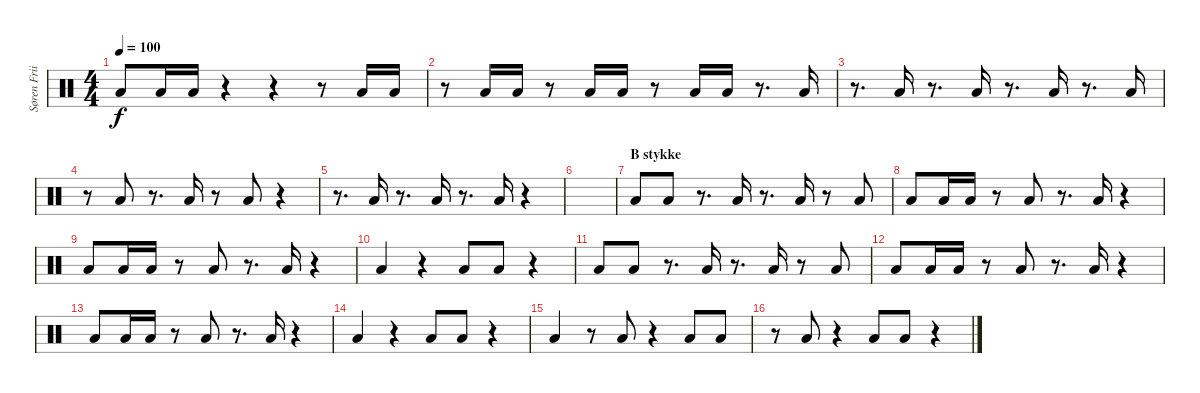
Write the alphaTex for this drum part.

\track ("Søren Friis (Drums)" "Søren Frii") {instrument percussion}
\staff {score}
\articulation defaults
\ts (4 4)
\tempo 100
\clef neutral
\ks c "Low Floor Tom (hit)".8{dy f} "Low Floor Tom (hit)".16 "Low Floor Tom (hit)".16
r.4 r.4 r.8 "Low Floor Tom (hit)".16 "Low Floor Tom (hit)".16 |
r.8 "Low Floor Tom (hit)".16 "Low Floor Tom (hit)".16 r.8 "Low Floor Tom (hit)".16 "Low Floor Tom (hit)".16 r.8 "Low Floor Tom (hit)".16 "Low Floor Tom (hit)".16 r.8{d} "Low Floor Tom (hit)".16 |
r.8{d} "Low Floor Tom (hit)".16 r.8{d} "Low Floor Tom (hit)".16 r.8{d} "Low Floor Tom (hit)".16 r.8{d} "Low Floor Tom (hit)".16 |
r.8 "Low Floor Tom (hit)".8 r.8{d} "Low Floor Tom (hit)".16 r.8 "Low Floor Tom (hit)".8 r.4 |
r.8{d} "Low Floor Tom (hit)".16 r.8{d} "Low Floor Tom (hit)".16 r.8{d} "Low Floor Tom (hit)".16 r.4 |
|
\section ("" "B stykke")
"Low Floor Tom (hit)".8 "Low Floor Tom (hit)".8 r.8{d} "Low Floor Tom (hit)".16 r.8{d} "Low Floor Tom (hit)".16 r.8 "Low Floor Tom (hit)".8 |
"Low Floor Tom (hit)".8 "Low Floor Tom (hit)".16 "Low Floor Tom (hit)".16 r.8 "Low Floor Tom (hit)".8 r.8{d} "Low Floor Tom (hit)".16 r.4 |
"Low Floor Tom (hit)".8 "Low Floor Tom (hit)".16 "Low Floor Tom (hit)".16 r.8 "Low Floor Tom (hit)".8 r.8{d} "Low Floor Tom (hit)".16 r.4 |
"Low Floor Tom (hit)".4 r.4 "Low Floor Tom (hit)".8 "Low Floor Tom (hit)".8 r.4 |
"Low Floor Tom (hit)".8 "Low Floor Tom (hit)".8 r.8{d} "Low Floor Tom (hit)".16 r.8{d} "Low Floor Tom (hit)".16 r.8 "Low Floor Tom (hit)".8 |
"Low Floor Tom (hit)".8 "Low Floor Tom (hit)".16 "Low Floor Tom (hit)".16 r.8 "Low Floor Tom (hit)".8 r.8{d} "Low Floor Tom (hit)".16 r.4 |
"Low Floor Tom (hit)".8 "Low Floor Tom (hit)".16 "Low Floor Tom (hit)".16 r.8 "Low Floor Tom (hit)".8 r.8{d} "Low Floor Tom (hit)".16 r.4 |
"Low Floor Tom (hit)".4 r.4 "Low Floor Tom (hit)".8 "Low Floor Tom (hit)".8 r.4 |
"Low Floor Tom (hit)".4 r.8 "Low Floor Tom (hit)".8 r.4 "Low Floor Tom (hit)".8 "Low Floor Tom (hit)".8 |
r.8 "Low Floor Tom (hit)".8 r.4 "Low Floor Tom (hit)".8 "Low Floor Tom (hit)".8 r.4
